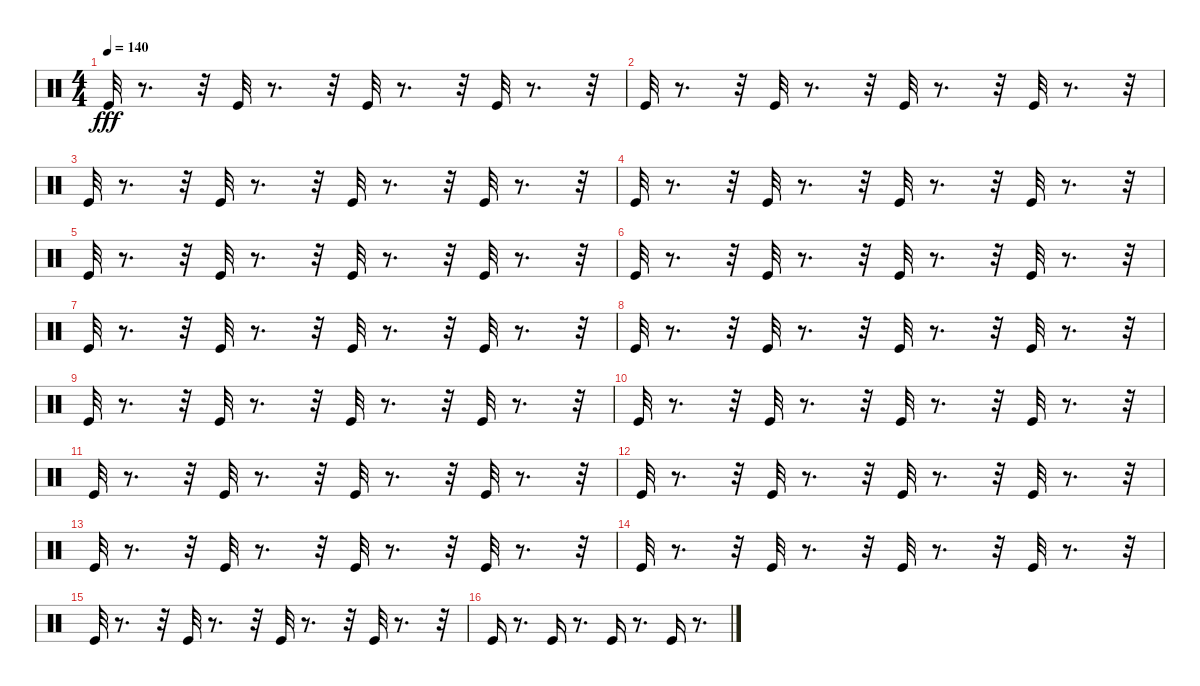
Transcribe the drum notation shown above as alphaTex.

\track "" {instrument percussion}
\staff {score}
\articulation defaults
\ts (4 4)
\tempo 140
\clef neutral
\ks c "Kick (hit)".32{dy fff}
r.8{d} r.32 "Kick (hit)".32 r.8{d} r.32 "Kick (hit)".32 r.8{d} r.32 "Kick (hit)".32 r.8{d} r.32 |
"Kick (hit)".32 r.8{d} r.32 "Kick (hit)".32 r.8{d} r.32 "Kick (hit)".32 r.8{d} r.32 "Kick (hit)".32 r.8{d} r.32 |
"Kick (hit)".32 r.8{d} r.32 "Kick (hit)".32 r.8{d} r.32 "Kick (hit)".32 r.8{d} r.32 "Kick (hit)".32 r.8{d} r.32 |
"Kick (hit)".32 r.8{d} r.32 "Kick (hit)".32 r.8{d} r.32 "Kick (hit)".32 r.8{d} r.32 "Kick (hit)".32 r.8{d} r.32 |
"Kick (hit)".32 r.8{d} r.32 "Kick (hit)".32 r.8{d} r.32 "Kick (hit)".32 r.8{d} r.32 "Kick (hit)".32 r.8{d} r.32 |
"Kick (hit)".32 r.8{d} r.32 "Kick (hit)".32 r.8{d} r.32 "Kick (hit)".32 r.8{d} r.32 "Kick (hit)".32 r.8{d} r.32 |
"Kick (hit)".32 r.8{d} r.32 "Kick (hit)".32 r.8{d} r.32 "Kick (hit)".32 r.8{d} r.32 "Kick (hit)".32 r.8{d} r.32 |
"Kick (hit)".32 r.8{d} r.32 "Kick (hit)".32 r.8{d} r.32 "Kick (hit)".32 r.8{d} r.32 "Kick (hit)".32 r.8{d} r.32 |
"Kick (hit)".32 r.8{d} r.32 "Kick (hit)".32 r.8{d} r.32 "Kick (hit)".32 r.8{d} r.32 "Kick (hit)".32 r.8{d} r.32 |
"Kick (hit)".32 r.8{d} r.32 "Kick (hit)".32 r.8{d} r.32 "Kick (hit)".32 r.8{d} r.32 "Kick (hit)".32 r.8{d} r.32 |
"Kick (hit)".32 r.8{d} r.32 "Kick (hit)".32 r.8{d} r.32 "Kick (hit)".32 r.8{d} r.32 "Kick (hit)".32 r.8{d} r.32 |
"Kick (hit)".32 r.8{d} r.32 "Kick (hit)".32 r.8{d} r.32 "Kick (hit)".32 r.8{d} r.32 "Kick (hit)".32 r.8{d} r.32 |
"Kick (hit)".32 r.8{d} r.32 "Kick (hit)".32 r.8{d} r.32 "Kick (hit)".32 r.8{d} r.32 "Kick (hit)".32 r.8{d} r.32 |
"Kick (hit)".32 r.8{d} r.32 "Kick (hit)".32 r.8{d} r.32 "Kick (hit)".32 r.8{d} r.32 "Kick (hit)".32 r.8{d} r.32 |
"Kick (hit)".32 r.8{d} r.32 "Kick (hit)".32 r.8{d} r.32 "Kick (hit)".32 r.8{d} r.32 "Kick (hit)".32 r.8{d} r.32 |
"Kick (hit)".16 r.8{d} "Kick (hit)".16 r.8{d} "Kick (hit)".16 r.8{d} "Kick (hit)".16 r.8{d}
